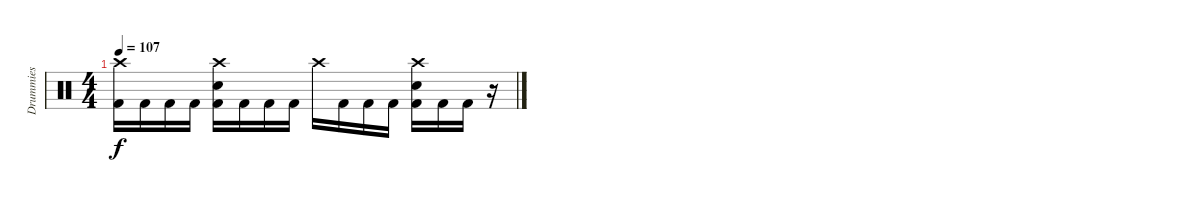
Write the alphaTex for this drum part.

\track ("Drummies" "Drummies") {instrument percussion}
\staff {score}
\articulation defaults
\ts (4 4)
\tempo 107
\clef neutral
\ks c
("Crash high (hit)" "Kick (hit) 2").16{dy f} "Kick (hit) 2".16 "Kick (hit) 2".16 "Kick (hit) 2".16 ("Electric Snare (hit)" "Crash high (hit)" "Kick (hit) 2").16 "Kick (hit) 2".16 "Kick (hit) 2".16 "Kick (hit) 2".16 "Crash high (hit)".16 "Kick (hit) 2".16 "Kick (hit) 2".16 "Kick (hit) 2".16 ("Electric Snare (hit)" "Crash high (hit)" "Kick (hit) 2").16 "Kick (hit) 2".16 "Kick (hit) 2".16 r.16
